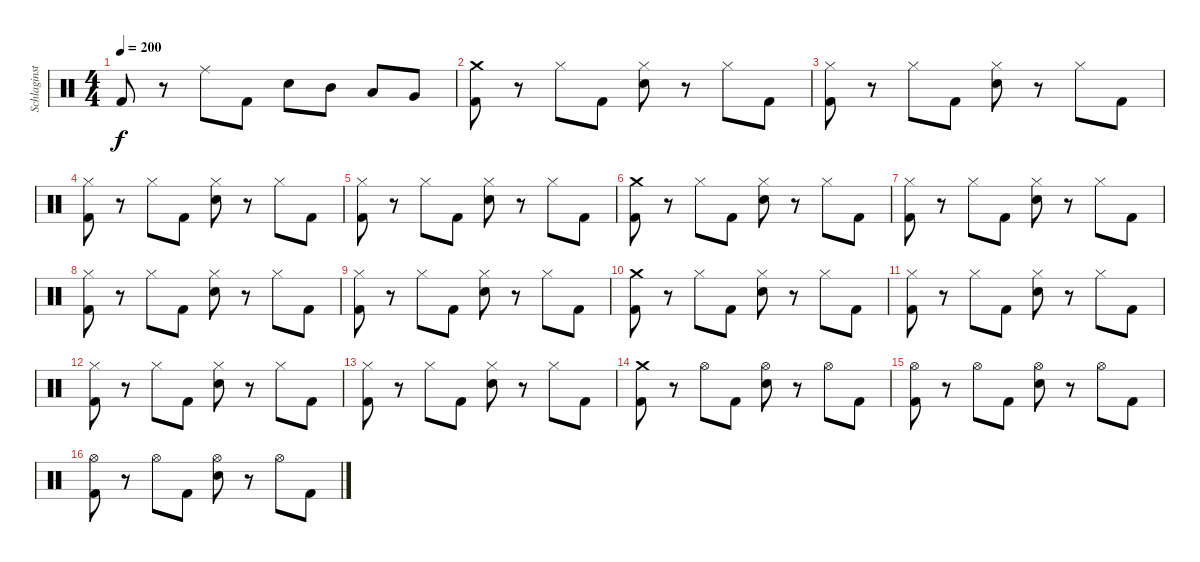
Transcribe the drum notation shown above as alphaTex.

\track ("Schlaginstrumente - Auswahl" "Schlaginst") {instrument percussion}
\staff {score}
\articulation defaults
\ts (4 4)
\tempo 200
\clef neutral
\ks c "Kick (hit) 2".8{dy f}
r.8 "Ride (middle)".8 "Kick (hit) 2".8 "Electric Snare (hit)".8 "Mid Tom (hit)".8 "Low Tom (hit)".8 "Very Low Tom (hit)".8 |
("Crash medium (hit)" "Kick (hit) 2").8 r.8 "Hi-Hat (closed)".8 "Kick (hit) 2".8 ("Hi-Hat (closed)" "Electric Snare (hit)").8 r.8 "Hi-Hat (closed)".8 "Kick (hit) 2".8 |
("Hi-Hat (closed)" "Kick (hit) 2").8 r.8 "Hi-Hat (closed)".8 "Kick (hit) 2".8 ("Hi-Hat (closed)" "Electric Snare (hit)").8 r.8 "Hi-Hat (closed)".8 "Kick (hit) 2".8 |
("Hi-Hat (closed)" "Kick (hit) 2").8 r.8 "Hi-Hat (closed)".8 "Kick (hit) 2".8 ("Hi-Hat (closed)" "Electric Snare (hit)").8 r.8 "Hi-Hat (closed)".8 "Kick (hit) 2".8 |
("Hi-Hat (closed)" "Kick (hit) 2").8 r.8 "Hi-Hat (closed)".8 "Kick (hit) 2".8 ("Hi-Hat (closed)" "Electric Snare (hit)").8 r.8 "Hi-Hat (closed)".8 "Kick (hit) 2".8 |
("Crash medium (hit)" "Kick (hit) 2").8 r.8 "Hi-Hat (closed)".8 "Kick (hit) 2".8 ("Hi-Hat (closed)" "Electric Snare (hit)").8 r.8 "Hi-Hat (closed)".8 "Kick (hit) 2".8 |
("Hi-Hat (closed)" "Kick (hit) 2").8 r.8 "Hi-Hat (closed)".8 "Kick (hit) 2".8 ("Hi-Hat (closed)" "Electric Snare (hit)").8 r.8 "Hi-Hat (closed)".8 "Kick (hit) 2".8 |
("Hi-Hat (closed)" "Kick (hit) 2").8 r.8 "Hi-Hat (closed)".8 "Kick (hit) 2".8 ("Hi-Hat (closed)" "Electric Snare (hit)").8 r.8 "Hi-Hat (closed)".8 "Kick (hit) 2".8 |
("Hi-Hat (closed)" "Kick (hit) 2").8 r.8 "Hi-Hat (closed)".8 "Kick (hit) 2".8 ("Hi-Hat (closed)" "Electric Snare (hit)").8 r.8 "Hi-Hat (closed)".8 "Kick (hit) 2".8 |
("Crash medium (hit)" "Kick (hit) 2").8 r.8 "Hi-Hat (closed)".8 "Kick (hit) 2".8 ("Hi-Hat (closed)" "Electric Snare (hit)").8 r.8 "Hi-Hat (closed)".8 "Kick (hit) 2".8 |
("Hi-Hat (closed)" "Kick (hit) 2").8 r.8 "Hi-Hat (closed)".8 "Kick (hit) 2".8 ("Hi-Hat (closed)" "Electric Snare (hit)").8 r.8 "Hi-Hat (closed)".8 "Kick (hit) 2".8 |
("Hi-Hat (closed)" "Kick (hit) 2").8 r.8 "Hi-Hat (closed)".8 "Kick (hit) 2".8 ("Hi-Hat (closed)" "Electric Snare (hit)").8 r.8 "Hi-Hat (closed)".8 "Kick (hit) 2".8 |
("Hi-Hat (closed)" "Kick (hit) 2").8 r.8 "Hi-Hat (closed)".8 "Kick (hit) 2".8 ("Hi-Hat (closed)" "Electric Snare (hit)").8 r.8 "Hi-Hat (closed)".8 "Kick (hit) 2".8 |
("Crash medium (hit)" "Kick (hit) 2").8 r.8 "Hi-Hat (open)".8 "Kick (hit) 2".8 ("Hi-Hat (open)" "Electric Snare (hit)").8 r.8 "Hi-Hat (open)".8 "Kick (hit) 2".8 |
("Hi-Hat (open)" "Kick (hit) 2").8 r.8 "Hi-Hat (open)".8 "Kick (hit) 2".8 ("Hi-Hat (open)" "Electric Snare (hit)").8 r.8 "Hi-Hat (open)".8 "Kick (hit) 2".8 |
("Hi-Hat (open)" "Kick (hit) 2").8 r.8 "Hi-Hat (open)".8 "Kick (hit) 2".8 ("Hi-Hat (open)" "Electric Snare (hit)").8 r.8 "Hi-Hat (open)".8 "Kick (hit) 2".8
